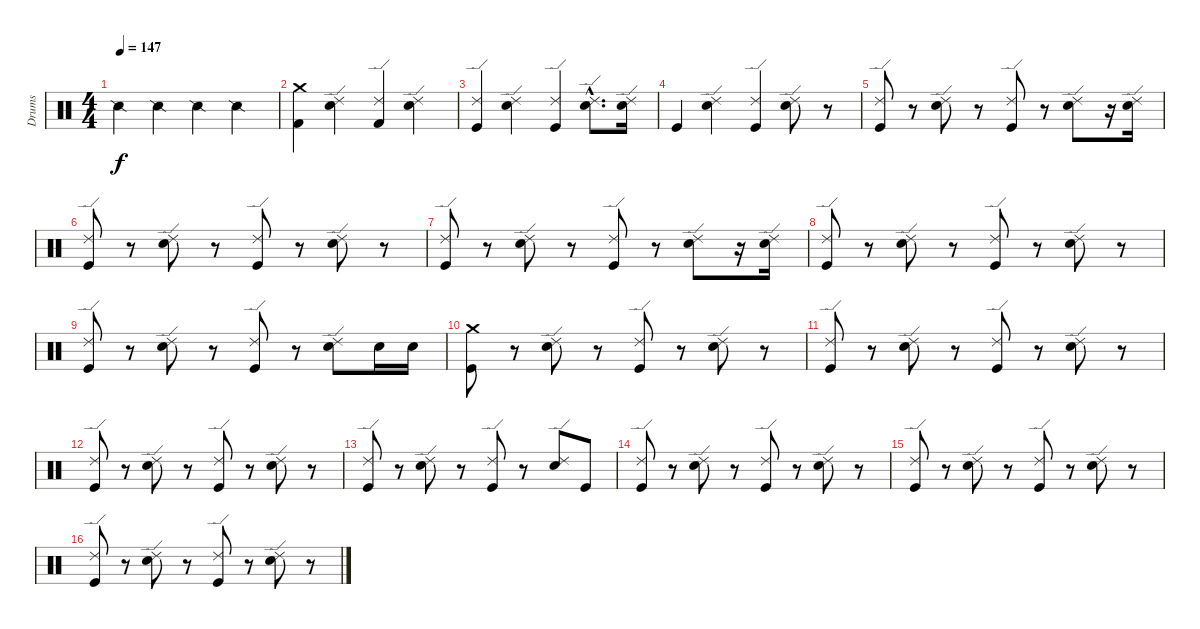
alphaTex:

\track ("Drums" "Drums") {instrument percussion}
\staff {score}
\articulation defaults
\ts (4 4)
\tempo 147
\clef neutral
\ks c "Snare (side stick) 2".4{dy f} "Snare (side stick) 2".4 "Snare (side stick) 2".4 "Snare (side stick) 2".4
|
("Crash medium (hit)" "Kick (hit) 2").4 ("Ride (edge) 2" "Snare (hit) 2").4 ("Ride (edge) 2" "Kick (hit) 2").4 ("Ride (edge) 2" "Snare (hit) 2").4 |
("Ride (edge) 2" "Kick (hit)").4 ("Ride (edge) 2" "Snare (hit) 2").4 ("Ride (edge) 2" "Kick (hit)").4 ("Ride (edge) 2"{hac} "Snare (hit) 2"{hac}).8{d} ("Ride (edge) 2" "Snare (hit) 2").16 |
"Kick (hit)".4 ("Ride (edge) 2" "Snare (hit) 2").4 ("Ride (edge) 2" "Kick (hit)").4 ("Ride (edge) 2" "Snare (hit) 2").8 r.8 |
("Ride (edge) 2" "Kick (hit)").8 r.8 ("Ride (edge) 2" "Snare (hit) 2").8 r.8 ("Ride (edge) 2" "Kick (hit)").8 r.8 ("Ride (edge) 2" "Snare (hit) 2").8 r.16 ("Ride (edge) 2" "Snare (hit) 2").16 |
("Ride (edge) 2" "Kick (hit)").8 r.8 ("Ride (edge) 2" "Snare (hit) 2").8 r.8 ("Ride (edge) 2" "Kick (hit)").8 r.8 ("Ride (edge) 2" "Snare (hit) 2").8 r.8 |
("Ride (edge) 2" "Kick (hit)").8 r.8 ("Ride (edge) 2" "Snare (hit) 2").8 r.8 ("Ride (edge) 2" "Kick (hit)").8 r.8 ("Ride (edge) 2" "Snare (hit) 2").8 r.16 ("Ride (edge) 2" "Snare (hit) 2").16 |
("Ride (edge) 2" "Kick (hit)").8 r.8 ("Ride (edge) 2" "Snare (hit) 2").8 r.8 ("Ride (edge) 2" "Kick (hit)").8 r.8 ("Ride (edge) 2" "Snare (hit) 2").8 r.8 |
("Ride (edge) 2" "Kick (hit)").8 r.8 ("Ride (edge) 2" "Snare (hit) 2").8 r.8 ("Ride (edge) 2" "Kick (hit)").8 r.8 ("Snare (hit) 2" "Ride (edge) 2").8 "Snare (hit) 2".16 "Snare (hit) 2".16 |
("Crash medium (hit)" "Kick (hit)").8 r.8 ("Ride (edge) 2" "Snare (hit) 2").8 r.8 ("Ride (edge) 2" "Kick (hit)").8 r.8 ("Ride (edge) 2" "Snare (hit) 2").8 r.8 |
("Ride (edge) 2" "Kick (hit)").8 r.8 ("Ride (edge) 2" "Snare (hit) 2").8 r.8 ("Ride (edge) 2" "Kick (hit)").8 r.8 ("Ride (edge) 2" "Snare (hit) 2").8 r.8 |
("Ride (edge) 2" "Kick (hit)").8 r.8 ("Ride (edge) 2" "Snare (hit) 2").8 r.8 ("Ride (edge) 2" "Kick (hit)").8 r.8 ("Ride (edge) 2" "Snare (hit) 2").8 r.8 |
("Ride (edge) 2" "Kick (hit)").8 r.8 ("Ride (edge) 2" "Snare (hit) 2").8 r.8 ("Ride (edge) 2" "Kick (hit)").8 r.8 ("Ride (edge) 2" "Snare (hit) 2").8 "Kick (hit)".8 |
("Ride (edge) 2" "Kick (hit)").8 r.8 ("Ride (edge) 2" "Snare (hit) 2").8 r.8 ("Ride (edge) 2" "Kick (hit)").8 r.8 ("Ride (edge) 2" "Snare (hit) 2").8 r.8 |
("Ride (edge) 2" "Kick (hit)").8 r.8 ("Ride (edge) 2" "Snare (hit) 2").8 r.8 ("Ride (edge) 2" "Kick (hit)").8 r.8 ("Ride (edge) 2" "Snare (hit) 2").8 r.8 |
("Ride (edge) 2" "Kick (hit)").8 r.8 ("Ride (edge) 2" "Snare (hit) 2").8 r.8 ("Ride (edge) 2" "Kick (hit)").8 r.8 ("Ride (edge) 2" "Snare (hit) 2").8 r.8
